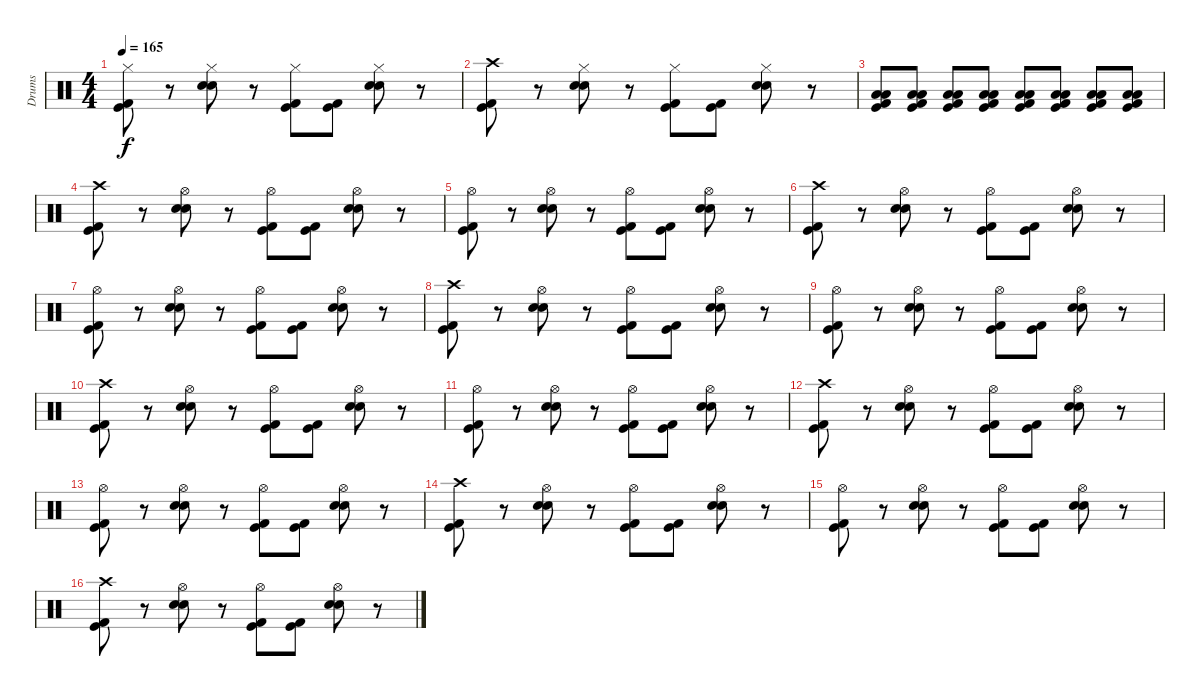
\track ("Drums" "Drums") {instrument percussion}
\staff {score}
\articulation defaults
\ts (4 4)
\tempo 165
\clef neutral
\ks c
("Hi-Hat (closed)" "Kick (hit) 2" "Kick (hit)").8{dy f} r.8 ("Hi-Hat (closed)" "Electric Snare (hit)" "Snare (hit) 2").8 r.8 ("Hi-Hat (closed)" "Kick (hit) 2" "Kick (hit)").8 ("Kick (hit) 2" "Kick (hit)").8 ("Hi-Hat (closed)" "Electric Snare (hit)" "Snare (hit) 2").8 r.8 |
("Crash high (hit)" "Kick (hit) 2" "Kick (hit)").8 r.8 ("Hi-Hat (closed)" "Electric Snare (hit)" "Snare (hit) 2").8 r.8 ("Hi-Hat (closed)" "Kick (hit) 2" "Kick (hit)").8 ("Kick (hit) 2" "Kick (hit)").8 ("Hi-Hat (closed)" "Electric Snare (hit)" "Snare (hit) 2").8 r.8 |
("Kick (hit) 2" "Kick (hit)" "Low Floor Tom (hit)" "Low Tom (hit)").8 ("Kick (hit) 2" "Kick (hit)" "Low Floor Tom (hit)" "Low Tom (hit)").8 ("Kick (hit) 2" "Kick (hit)" "Low Floor Tom (hit)" "Low Tom (hit)").8 ("Kick (hit) 2" "Kick (hit)" "Low Floor Tom (hit)" "Low Tom (hit)").8 ("Kick (hit) 2" "Kick (hit)" "Low Floor Tom (hit)" "Low Tom (hit)").8 ("Kick (hit) 2" "Kick (hit)" "Low Floor Tom (hit)" "Low Tom (hit)").8 ("Kick (hit) 2" "Kick (hit)" "Low Floor Tom (hit)" "Low Tom (hit)").8 ("Kick (hit) 2" "Kick (hit)" "Low Floor Tom (hit)" "Low Tom (hit)").8 |
("Crash high (hit)" "Kick (hit) 2" "Kick (hit)").8 r.8 ("Hi-Hat (open)" "Electric Snare (hit)" "Snare (hit) 2").8 r.8 ("Hi-Hat (open)" "Kick (hit) 2" "Kick (hit)").8 ("Kick (hit) 2" "Kick (hit)").8 ("Hi-Hat (open)" "Electric Snare (hit)" "Snare (hit) 2").8 r.8 |
("Hi-Hat (open)" "Kick (hit) 2" "Kick (hit)").8 r.8 ("Hi-Hat (open)" "Electric Snare (hit)" "Snare (hit) 2").8 r.8 ("Hi-Hat (open)" "Kick (hit) 2" "Kick (hit)").8 ("Kick (hit) 2" "Kick (hit)").8 ("Hi-Hat (open)" "Electric Snare (hit)" "Snare (hit) 2").8 r.8 |
("Crash high (hit)" "Kick (hit) 2" "Kick (hit)").8 r.8 ("Hi-Hat (open)" "Electric Snare (hit)" "Snare (hit) 2").8 r.8 ("Hi-Hat (open)" "Kick (hit) 2" "Kick (hit)").8 ("Kick (hit) 2" "Kick (hit)").8 ("Hi-Hat (open)" "Electric Snare (hit)" "Snare (hit) 2").8 r.8 |
("Hi-Hat (open)" "Kick (hit) 2" "Kick (hit)").8 r.8 ("Hi-Hat (open)" "Electric Snare (hit)" "Snare (hit) 2").8 r.8 ("Hi-Hat (open)" "Kick (hit) 2" "Kick (hit)").8 ("Kick (hit) 2" "Kick (hit)").8 ("Hi-Hat (open)" "Electric Snare (hit)" "Snare (hit) 2").8 r.8 |
("Crash high (hit)" "Kick (hit) 2" "Kick (hit)").8 r.8 ("Hi-Hat (open)" "Electric Snare (hit)" "Snare (hit) 2").8 r.8 ("Hi-Hat (open)" "Kick (hit) 2" "Kick (hit)").8 ("Kick (hit) 2" "Kick (hit)").8 ("Hi-Hat (open)" "Electric Snare (hit)" "Snare (hit) 2").8 r.8 |
("Hi-Hat (open)" "Kick (hit) 2" "Kick (hit)").8 r.8 ("Hi-Hat (open)" "Electric Snare (hit)" "Snare (hit) 2").8 r.8 ("Hi-Hat (open)" "Kick (hit) 2" "Kick (hit)").8 ("Kick (hit) 2" "Kick (hit)").8 ("Hi-Hat (open)" "Electric Snare (hit)" "Snare (hit) 2").8 r.8 |
("Crash high (hit)" "Kick (hit) 2" "Kick (hit)").8 r.8 ("Hi-Hat (open)" "Electric Snare (hit)" "Snare (hit) 2").8 r.8 ("Hi-Hat (open)" "Kick (hit) 2" "Kick (hit)").8 ("Kick (hit) 2" "Kick (hit)").8 ("Hi-Hat (open)" "Electric Snare (hit)" "Snare (hit) 2").8 r.8 |
("Hi-Hat (open)" "Kick (hit) 2" "Kick (hit)").8 r.8 ("Hi-Hat (open)" "Electric Snare (hit)" "Snare (hit) 2").8 r.8 ("Hi-Hat (open)" "Kick (hit) 2" "Kick (hit)").8 ("Kick (hit) 2" "Kick (hit)").8 ("Hi-Hat (open)" "Electric Snare (hit)" "Snare (hit) 2").8 r.8 |
("Crash high (hit)" "Kick (hit) 2" "Kick (hit)").8 r.8 ("Hi-Hat (open)" "Electric Snare (hit)" "Snare (hit) 2").8 r.8 ("Hi-Hat (open)" "Kick (hit) 2" "Kick (hit)").8 ("Kick (hit) 2" "Kick (hit)").8 ("Hi-Hat (open)" "Electric Snare (hit)" "Snare (hit) 2").8 r.8 |
("Hi-Hat (open)" "Kick (hit) 2" "Kick (hit)").8 r.8 ("Hi-Hat (open)" "Electric Snare (hit)" "Snare (hit) 2").8 r.8 ("Hi-Hat (open)" "Kick (hit) 2" "Kick (hit)").8 ("Kick (hit) 2" "Kick (hit)").8 ("Hi-Hat (open)" "Electric Snare (hit)" "Snare (hit) 2").8 r.8 |
("Crash high (hit)" "Kick (hit) 2" "Kick (hit)").8 r.8 ("Hi-Hat (open)" "Electric Snare (hit)" "Snare (hit) 2").8 r.8 ("Hi-Hat (open)" "Kick (hit) 2" "Kick (hit)").8 ("Kick (hit) 2" "Kick (hit)").8 ("Hi-Hat (open)" "Electric Snare (hit)" "Snare (hit) 2").8 r.8 |
("Hi-Hat (open)" "Kick (hit) 2" "Kick (hit)").8 r.8 ("Hi-Hat (open)" "Electric Snare (hit)" "Snare (hit) 2").8 r.8 ("Hi-Hat (open)" "Kick (hit) 2" "Kick (hit)").8 ("Kick (hit) 2" "Kick (hit)").8 ("Hi-Hat (open)" "Electric Snare (hit)" "Snare (hit) 2").8 r.8 |
("Crash high (hit)" "Kick (hit) 2" "Kick (hit)").8 r.8 ("Hi-Hat (open)" "Electric Snare (hit)" "Snare (hit) 2").8 r.8 ("Hi-Hat (open)" "Kick (hit) 2" "Kick (hit)").8 ("Kick (hit) 2" "Kick (hit)").8 ("Hi-Hat (open)" "Electric Snare (hit)" "Snare (hit) 2").8 r.8
